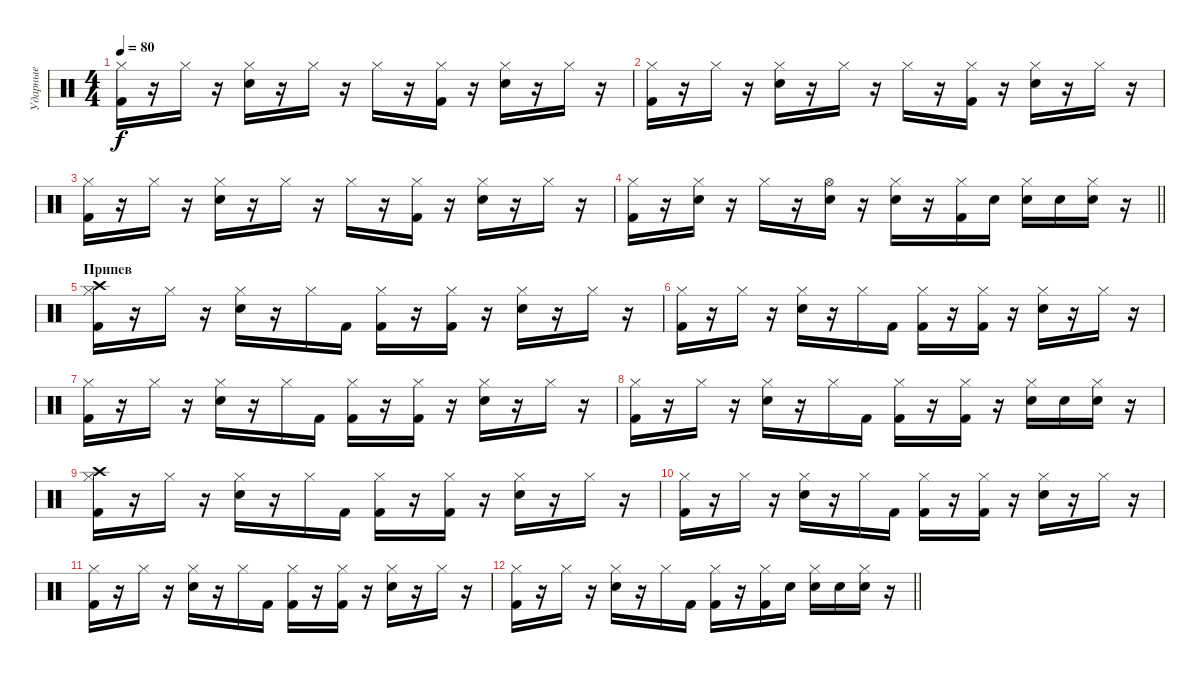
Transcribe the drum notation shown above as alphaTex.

\track ("Ударные" "Ударные") {instrument percussion}
\staff {score}
\articulation defaults
\ts (4 4)
\tempo 80
\clef neutral
\ks c
("Hi-Hat (closed)" "Kick (hit) 2").16{dy f} r.16 "Hi-Hat (closed)".16 r.16 ("Hi-Hat (closed)" "Snare (hit) 2").16 r.16 "Hi-Hat (closed)".16 r.16 "Hi-Hat (closed)".16 r.16 ("Hi-Hat (closed)" "Kick (hit) 2").16 r.16 ("Hi-Hat (closed)" "Snare (hit) 2").16 r.16 "Hi-Hat (closed)".16 r.16 |
("Hi-Hat (closed)" "Kick (hit) 2").16 r.16 "Hi-Hat (closed)".16 r.16 ("Hi-Hat (closed)" "Snare (hit) 2").16 r.16 "Hi-Hat (closed)".16 r.16 "Hi-Hat (closed)".16 r.16 ("Hi-Hat (closed)" "Kick (hit) 2").16 r.16 ("Hi-Hat (closed)" "Snare (hit) 2").16 r.16 "Hi-Hat (closed)".16 r.16 |
("Hi-Hat (closed)" "Kick (hit) 2").16 r.16 "Hi-Hat (closed)".16 r.16 ("Hi-Hat (closed)" "Snare (hit) 2").16 r.16 "Hi-Hat (closed)".16 r.16 "Hi-Hat (closed)".16 r.16 ("Hi-Hat (closed)" "Kick (hit) 2").16 r.16 ("Hi-Hat (closed)" "Snare (hit) 2").16 r.16 "Hi-Hat (closed)".16 r.16 |
\barLineRight lightlight
("Hi-Hat (closed)" "Kick (hit) 2").16 r.16 ("Hi-Hat (closed)" "Snare (hit) 2").16 r.16 "Hi-Hat (closed)".16 r.16 ("Hi-Hat (open)" "Snare (hit) 2").16 r.16 ("Hi-Hat (closed)" "Snare (hit) 2").16 r.16 ("Hi-Hat (closed)" "Kick (hit) 2").16 "Snare (hit) 2".16 ("Hi-Hat (closed)" "Snare (hit) 2").16 "Snare (hit) 2".16 ("Hi-Hat (closed)" "Snare (hit) 2").16 r.16 |
\section ("" "Припев")
("Hi-Hat (closed)" "Kick (hit) 2" "Crash high (hit)").16 r.16 "Hi-Hat (closed)".16 r.16 ("Hi-Hat (closed)" "Snare (hit) 2").16 r.16 "Hi-Hat (closed)".16 "Kick (hit) 2".16 ("Hi-Hat (closed)" "Kick (hit) 2").16 r.16 ("Hi-Hat (closed)" "Kick (hit) 2").16 r.16 ("Hi-Hat (closed)" "Snare (hit) 2").16 r.16 "Hi-Hat (closed)".16 r.16 |
("Hi-Hat (closed)" "Kick (hit) 2").16 r.16 "Hi-Hat (closed)".16 r.16 ("Hi-Hat (closed)" "Snare (hit) 2").16 r.16 "Hi-Hat (closed)".16 "Kick (hit) 2".16 ("Hi-Hat (closed)" "Kick (hit) 2").16 r.16 ("Hi-Hat (closed)" "Kick (hit) 2").16 r.16 ("Hi-Hat (closed)" "Snare (hit) 2").16 r.16 "Hi-Hat (closed)".16 r.16 |
("Hi-Hat (closed)" "Kick (hit) 2").16 r.16 "Hi-Hat (closed)".16 r.16 ("Hi-Hat (closed)" "Snare (hit) 2").16 r.16 "Hi-Hat (closed)".16 "Kick (hit) 2".16 ("Hi-Hat (closed)" "Kick (hit) 2").16 r.16 ("Hi-Hat (closed)" "Kick (hit) 2").16 r.16 ("Hi-Hat (closed)" "Snare (hit) 2").16 r.16 "Hi-Hat (closed)".16 r.16 |
("Hi-Hat (closed)" "Kick (hit) 2").16 r.16 "Hi-Hat (closed)".16 r.16 ("Hi-Hat (closed)" "Snare (hit) 2").16 r.16 "Hi-Hat (closed)".16 "Kick (hit) 2".16 ("Hi-Hat (closed)" "Kick (hit) 2").16 r.16 ("Hi-Hat (closed)" "Kick (hit) 2").16 r.16 ("Hi-Hat (closed)" "Snare (hit) 2").16 "Snare (hit) 2".16 ("Hi-Hat (closed)" "Snare (hit) 2").16 r.16 |
("Hi-Hat (closed)" "Kick (hit) 2" "Crash high (hit)").16 r.16 "Hi-Hat (closed)".16 r.16 ("Hi-Hat (closed)" "Snare (hit) 2").16 r.16 "Hi-Hat (closed)".16 "Kick (hit) 2".16 ("Hi-Hat (closed)" "Kick (hit) 2").16 r.16 ("Hi-Hat (closed)" "Kick (hit) 2").16 r.16 ("Hi-Hat (closed)" "Snare (hit) 2").16 r.16 "Hi-Hat (closed)".16 r.16 |
("Hi-Hat (closed)" "Kick (hit) 2").16 r.16 "Hi-Hat (closed)".16 r.16 ("Hi-Hat (closed)" "Snare (hit) 2").16 r.16 "Hi-Hat (closed)".16 "Kick (hit) 2".16 ("Hi-Hat (closed)" "Kick (hit) 2").16 r.16 ("Hi-Hat (closed)" "Kick (hit) 2").16 r.16 ("Hi-Hat (closed)" "Snare (hit) 2").16 r.16 "Hi-Hat (closed)".16 r.16 |
("Hi-Hat (closed)" "Kick (hit) 2").16 r.16 "Hi-Hat (closed)".16 r.16 ("Hi-Hat (closed)" "Snare (hit) 2").16 r.16 "Hi-Hat (closed)".16 "Kick (hit) 2".16 ("Hi-Hat (closed)" "Kick (hit) 2").16 r.16 ("Hi-Hat (closed)" "Kick (hit) 2").16 r.16 ("Hi-Hat (closed)" "Snare (hit) 2").16 r.16 "Hi-Hat (closed)".16 r.16 |
\barLineRight lightlight
("Hi-Hat (closed)" "Kick (hit) 2").16 r.16 "Hi-Hat (closed)".16 r.16 ("Hi-Hat (closed)" "Snare (hit) 2").16 r.16 "Hi-Hat (closed)".16 "Kick (hit) 2".16 ("Hi-Hat (closed)" "Kick (hit) 2").16 r.16 ("Hi-Hat (closed)" "Kick (hit) 2").16 "Snare (hit) 2".16 ("Hi-Hat (closed)" "Snare (hit) 2").16 "Snare (hit) 2".16 ("Hi-Hat (closed)" "Snare (hit) 2").16 r.16
